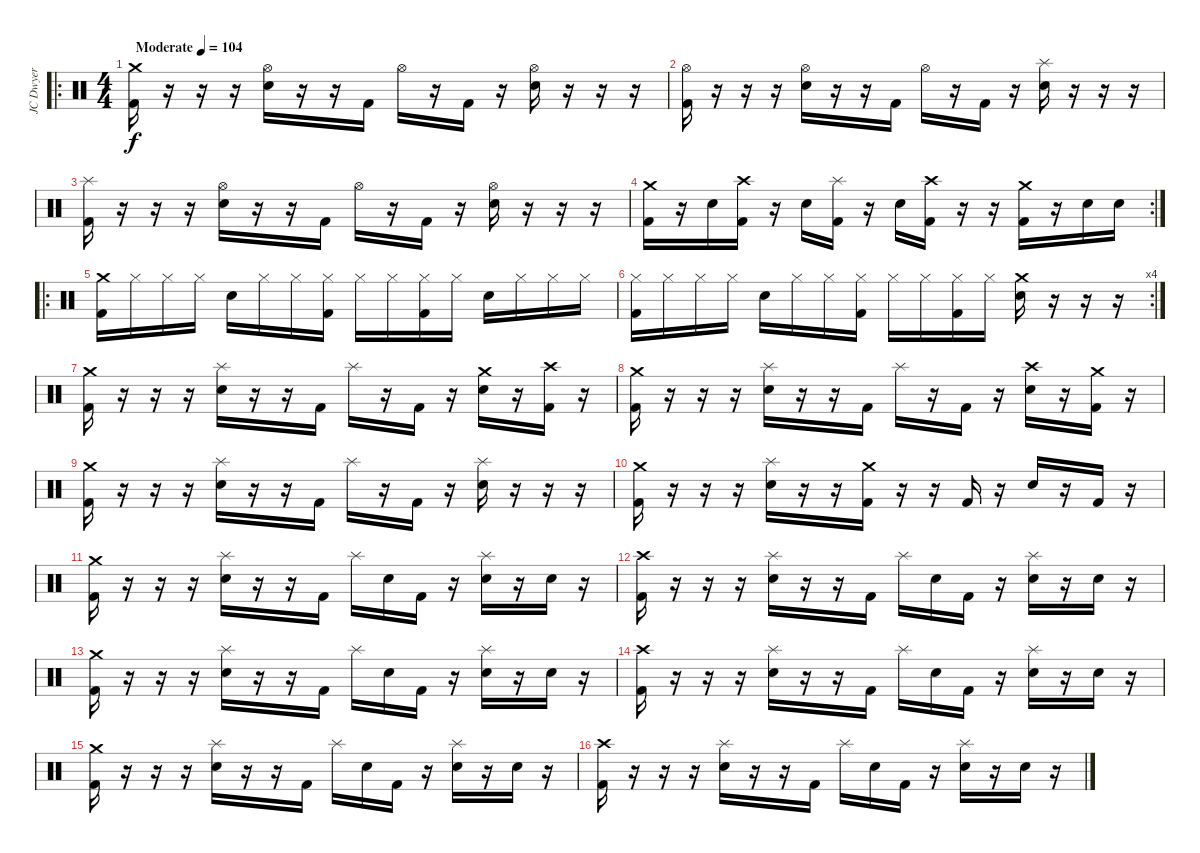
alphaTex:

\track ("JC Dwyer" "JC Dwyer") {instrument percussion}
\staff {score}
\articulation defaults
\ro
\ts (4 4)
\tempo (104 "Moderate")
\clef neutral
\ks c
("Crash medium (hit)" "Kick (hit) 2").16{dy f} r.16 r.16 r.16 ("Hi-Hat (open)" "Electric Snare (hit)").16 r.16 r.16 "Kick (hit) 2".16 "Hi-Hat (open)".16 r.16 "Kick (hit) 2".16 r.16 ("Hi-Hat (open)" "Electric Snare (hit)").16 r.16 r.16 r.16 |
("Hi-Hat (open)" "Kick (hit) 2").16 r.16 r.16 r.16 ("Hi-Hat (open)" "Electric Snare (hit)").16 r.16 r.16 "Kick (hit) 2".16 "Hi-Hat (open)".16 r.16 "Kick (hit) 2".16 r.16 ("Splash (hit)" "Electric Snare (hit)").16 r.16 r.16 r.16 |
("Splash (hit)" "Kick (hit) 2").16 r.16 r.16 r.16 ("Hi-Hat (open)" "Electric Snare (hit)").16 r.16 r.16 "Kick (hit) 2".16 "Hi-Hat (open)".16 r.16 "Kick (hit) 2".16 r.16 ("Hi-Hat (open)" "Electric Snare (hit)").16 r.16 r.16 r.16 |
\rc 2
("Crash medium (hit)" "Kick (hit) 2").16 r.16 "Electric Snare (hit)".16 ("Crash high (hit)" "Kick (hit) 2").16 r.16 "Electric Snare (hit)".16 ("Splash (hit)" "Kick (hit) 2").16 r.16 "Electric Snare (hit)".16 ("Crash high (hit)" "Kick (hit) 2").16 r.16 r.16 ("Crash medium (hit)" "Kick (hit) 2").16 r.16 "Electric Snare (hit)".16 "Electric Snare (hit)".16 |
\ro
("Crash medium (hit)" "Kick (hit) 2").16 "Hi-Hat (closed)".16 "Hi-Hat (closed)".16 "Hi-Hat (closed)".16 "Electric Snare (hit)".16 "Hi-Hat (closed)".16 "Hi-Hat (closed)".16 ("Hi-Hat (closed)" "Kick (hit) 2").16 "Hi-Hat (closed)".16 "Hi-Hat (closed)".16 ("Hi-Hat (closed)" "Kick (hit) 2").16 "Hi-Hat (closed)".16 "Electric Snare (hit)".16 "Hi-Hat (closed)".16 "Hi-Hat (closed)".16 "Hi-Hat (closed)".16 |
\rc 4
("Hi-Hat (closed)" "Kick (hit) 2").16 "Hi-Hat (closed)".16 "Hi-Hat (closed)".16 "Hi-Hat (closed)".16 "Electric Snare (hit)".16 "Hi-Hat (closed)".16 "Hi-Hat (closed)".16 ("Hi-Hat (closed)" "Kick (hit) 2").16 "Hi-Hat (closed)".16 "Hi-Hat (closed)".16 ("Hi-Hat (closed)" "Kick (hit) 2").16 "Hi-Hat (closed)".16 ("Crash medium (hit)" "Electric Snare (hit)").16 r.16 r.16 r.16 |
("Crash medium (hit)" "Kick (hit) 2").16 r.16 r.16 r.16 ("Splash (hit)" "Electric Snare (hit)").16 r.16 r.16 "Kick (hit) 2".16 "Splash (hit)".16 r.16 "Kick (hit) 2".16 r.16 ("Crash medium (hit)" "Electric Snare (hit)").16 r.16 ("Crash high (hit)" "Kick (hit) 2").16 r.16 |
("Crash medium (hit)" "Kick (hit) 2").16 r.16 r.16 r.16 ("Splash (hit)" "Electric Snare (hit)").16 r.16 r.16 "Kick (hit) 2".16 "Splash (hit)".16 r.16 "Kick (hit) 2".16 r.16 ("Crash high (hit)" "Electric Snare (hit)").16 r.16 ("Crash medium (hit)" "Kick (hit) 2").16 r.16 |
("Crash medium (hit)" "Kick (hit) 2").16 r.16 r.16 r.16 ("Splash (hit)" "Electric Snare (hit)").16 r.16 r.16 "Kick (hit) 2".16 "Splash (hit)".16 r.16 "Kick (hit) 2".16 r.16 ("Splash (hit)" "Electric Snare (hit)").16 r.16 r.16 r.16 |
("Crash medium (hit)" "Kick (hit) 2").16 r.16 r.16 r.16 ("Splash (hit)" "Electric Snare (hit)").16 r.16 r.16 ("Crash medium (hit)" "Kick (hit) 2").16 r.16 r.16 "Kick (hit) 2".16 r.16 "Electric Snare (hit)".16 r.16 "Kick (hit) 2".16 r.16 |
("Crash medium (hit)" "Kick (hit) 2").16 r.16 r.16 r.16 ("Splash (hit)" "Electric Snare (hit)").16 r.16 r.16 "Kick (hit) 2".16 "Splash (hit)".16 "Electric Snare (hit)".16 "Kick (hit) 2".16 r.16 ("Splash (hit)" "Electric Snare (hit)").16 r.16 "Electric Snare (hit)".16 r.16 |
("Crash high (hit)" "Kick (hit) 2").16 r.16 r.16 r.16 ("Splash (hit)" "Electric Snare (hit)").16 r.16 r.16 "Kick (hit) 2".16 "Splash (hit)".16 "Electric Snare (hit)".16 "Kick (hit) 2".16 r.16 ("Splash (hit)" "Electric Snare (hit)").16 r.16 "Electric Snare (hit)".16 r.16 |
("Crash medium (hit)" "Kick (hit) 2").16 r.16 r.16 r.16 ("Splash (hit)" "Electric Snare (hit)").16 r.16 r.16 "Kick (hit) 2".16 "Splash (hit)".16 "Electric Snare (hit)".16 "Kick (hit) 2".16 r.16 ("Splash (hit)" "Electric Snare (hit)").16 r.16 "Electric Snare (hit)".16 r.16 |
("Crash high (hit)" "Kick (hit) 2").16 r.16 r.16 r.16 ("Splash (hit)" "Electric Snare (hit)").16 r.16 r.16 "Kick (hit) 2".16 "Splash (hit)".16 "Electric Snare (hit)".16 "Kick (hit) 2".16 r.16 ("Splash (hit)" "Electric Snare (hit)").16 r.16 "Electric Snare (hit)".16 r.16 |
("Crash medium (hit)" "Kick (hit) 2").16 r.16 r.16 r.16 ("Splash (hit)" "Electric Snare (hit)").16 r.16 r.16 "Kick (hit) 2".16 "Splash (hit)".16 "Electric Snare (hit)".16 "Kick (hit) 2".16 r.16 ("Splash (hit)" "Electric Snare (hit)").16 r.16 "Electric Snare (hit)".16 r.16 |
("Crash high (hit)" "Kick (hit) 2").16 r.16 r.16 r.16 ("Splash (hit)" "Electric Snare (hit)").16 r.16 r.16 "Kick (hit) 2".16 "Splash (hit)".16 "Electric Snare (hit)".16 "Kick (hit) 2".16 r.16 ("Splash (hit)" "Electric Snare (hit)").16 r.16 "Electric Snare (hit)".16 r.16
